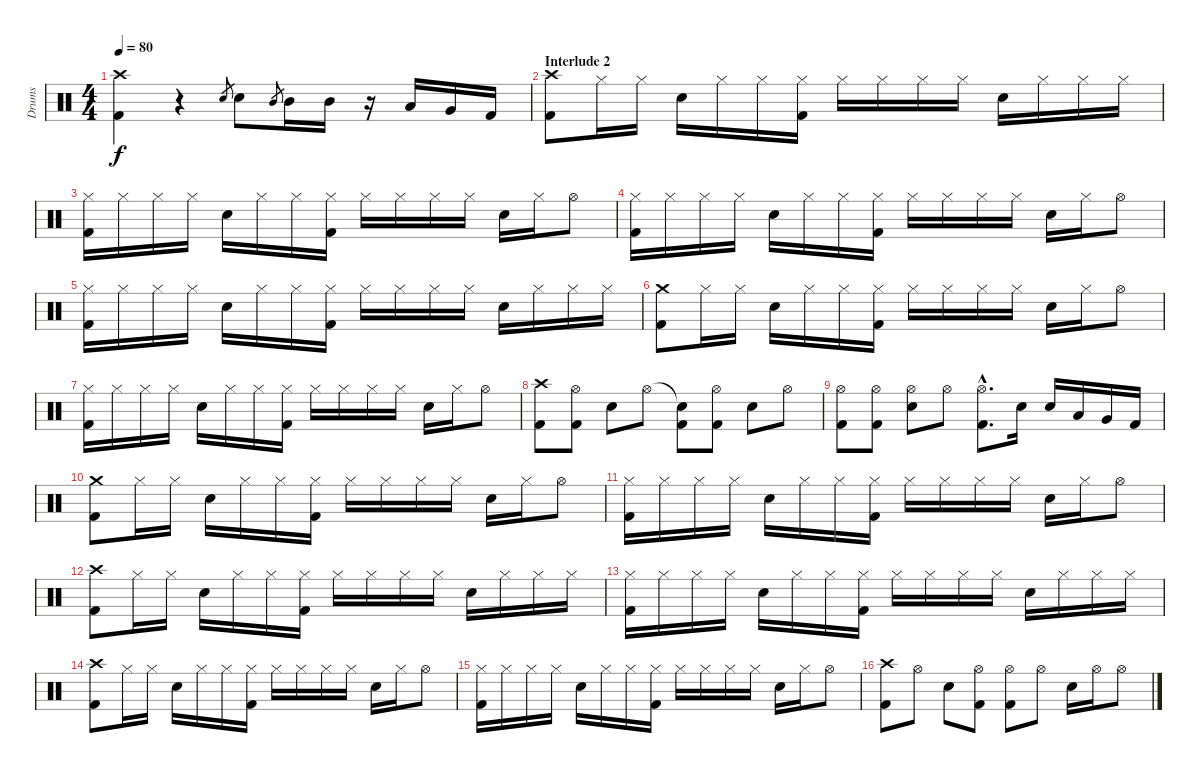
\track ("Drums" "Drums") {instrument percussion}
\staff {score}
\articulation defaults
\ts (4 4)
\tempo 80
\clef neutral
\ks c
("Crash high (hit)" "Kick (hit) 2").4{dy f} r.4 "Electric Snare (hit)"{sl}.8{gr} "Electric Snare (hit)".8 "Mid Tom (hit)".8{gr} "Mid Tom (hit)".16 "Mid Tom (hit)".16 r.16 "Low Tom (hit)".16 "Very Low Tom (hit)".16 "Kick (hit) 2".16 |
\section ("" "Interlude 2")
("Crash high (hit)" "Kick (hit) 2").8 "Hi-Hat (closed)".16 "Hi-Hat (closed)".16 "Electric Snare (hit)".16 "Hi-Hat (closed)".16 "Hi-Hat (closed)".16 ("Hi-Hat (closed)" "Kick (hit) 2").16 "Hi-Hat (closed)".16 "Hi-Hat (closed)".16 "Hi-Hat (closed)".16 "Hi-Hat (closed)".16 "Electric Snare (hit)".16 "Hi-Hat (closed)".16 "Hi-Hat (closed)".16 "Hi-Hat (closed)".16 |
("Hi-Hat (closed)" "Kick (hit) 2").16 "Hi-Hat (closed)".16 "Hi-Hat (closed)".16 "Hi-Hat (closed)".16 "Electric Snare (hit)".16 "Hi-Hat (closed)".16 "Hi-Hat (closed)".16 ("Hi-Hat (closed)" "Kick (hit) 2").16 "Hi-Hat (closed)".16 "Hi-Hat (closed)".16 "Hi-Hat (closed)".16 "Hi-Hat (closed)".16 "Electric Snare (hit)".16 "Hi-Hat (closed)".16 "Hi-Hat (open)".8 |
("Hi-Hat (closed)" "Kick (hit) 2").16 "Hi-Hat (closed)".16 "Hi-Hat (closed)".16 "Hi-Hat (closed)".16 "Electric Snare (hit)".16 "Hi-Hat (closed)".16 "Hi-Hat (closed)".16 ("Hi-Hat (closed)" "Kick (hit) 2").16 "Hi-Hat (closed)".16 "Hi-Hat (closed)".16 "Hi-Hat (closed)".16 "Hi-Hat (closed)".16 "Electric Snare (hit)".16 "Hi-Hat (closed)".16 "Hi-Hat (open)".8 |
("Hi-Hat (closed)" "Kick (hit) 2").16 "Hi-Hat (closed)".16 "Hi-Hat (closed)".16 "Hi-Hat (closed)".16 "Electric Snare (hit)".16 "Hi-Hat (closed)".16 "Hi-Hat (closed)".16 ("Hi-Hat (closed)" "Kick (hit) 2").16 "Hi-Hat (closed)".16 "Hi-Hat (closed)".16 "Hi-Hat (closed)".16 "Hi-Hat (closed)".16 "Electric Snare (hit)".16 "Hi-Hat (closed)".16 "Hi-Hat (closed)".16 "Hi-Hat (closed)".16 |
("Crash medium (hit)" "Kick (hit) 2").8 "Hi-Hat (closed)".16 "Hi-Hat (closed)".16 "Electric Snare (hit)".16 "Hi-Hat (closed)".16 "Hi-Hat (closed)".16 ("Hi-Hat (closed)" "Kick (hit) 2").16 "Hi-Hat (closed)".16 "Hi-Hat (closed)".16 "Hi-Hat (closed)".16 "Hi-Hat (closed)".16 "Electric Snare (hit)".16 "Hi-Hat (closed)".16 "Hi-Hat (open)".8 |
("Hi-Hat (closed)" "Kick (hit) 2").16 "Hi-Hat (closed)".16 "Hi-Hat (closed)".16 "Hi-Hat (closed)".16 "Electric Snare (hit)".16 "Hi-Hat (closed)".16 "Hi-Hat (closed)".16 ("Hi-Hat (closed)" "Kick (hit) 2").16 "Hi-Hat (closed)".16 "Hi-Hat (closed)".16 "Hi-Hat (closed)".16 "Hi-Hat (closed)".16 "Electric Snare (hit)".16 "Hi-Hat (closed)".16 "Hi-Hat (open)".8 |
("Crash high (hit)" "Kick (hit) 2").8 ("Hi-Hat (open)" "Kick (hit) 2").8 "Electric Snare (hit)".8 "Hi-Hat (open)".8 ("Snare (hit)"{t} "Kick (hit) 2").8 ("Hi-Hat (open)" "Kick (hit) 2").8 "Electric Snare (hit)".8 "Hi-Hat (open)".8 |
("Hi-Hat (open)" "Kick (hit) 2").8 ("Hi-Hat (open)" "Kick (hit) 2").8 ("Hi-Hat (open)" "Electric Snare (hit)").8 "Hi-Hat (open)".8 ("Hi-Hat (open)"{hac} "Kick (hit) 2"{hac}).8{d} "Electric Snare (hit)".16 "Electric Snare (hit)".16 "Low Tom (hit)".16 "Very Low Tom (hit)".16 "Kick (hit) 2".16 |
("Crash medium (hit)" "Kick (hit) 2").8 "Hi-Hat (closed)".16 "Hi-Hat (closed)".16 "Electric Snare (hit)".16 "Hi-Hat (closed)".16 "Hi-Hat (closed)".16 ("Hi-Hat (closed)" "Kick (hit) 2").16 "Hi-Hat (closed)".16 "Hi-Hat (closed)".16 "Hi-Hat (closed)".16 "Hi-Hat (closed)".16 "Electric Snare (hit)".16 "Hi-Hat (closed)".16 "Hi-Hat (open)".8 |
("Hi-Hat (closed)" "Kick (hit) 2").16 "Hi-Hat (closed)".16 "Hi-Hat (closed)".16 "Hi-Hat (closed)".16 "Electric Snare (hit)".16 "Hi-Hat (closed)".16 "Hi-Hat (closed)".16 ("Hi-Hat (closed)" "Kick (hit) 2").16 "Hi-Hat (closed)".16 "Hi-Hat (closed)".16 "Hi-Hat (closed)".16 "Hi-Hat (closed)".16 "Electric Snare (hit)".16 "Hi-Hat (closed)".16 "Hi-Hat (open)".8 |
("Crash high (hit)" "Kick (hit) 2").8 "Hi-Hat (closed)".16 "Hi-Hat (closed)".16 "Electric Snare (hit)".16 "Hi-Hat (closed)".16 "Hi-Hat (closed)".16 ("Hi-Hat (closed)" "Kick (hit) 2").16 "Hi-Hat (closed)".16 "Hi-Hat (closed)".16 "Hi-Hat (closed)".16 "Hi-Hat (closed)".16 "Electric Snare (hit)".16 "Hi-Hat (closed)".16 "Hi-Hat (closed)".16 "Hi-Hat (closed)".16 |
("Hi-Hat (closed)" "Kick (hit) 2").16 "Hi-Hat (closed)".16 "Hi-Hat (closed)".16 "Hi-Hat (closed)".16 "Electric Snare (hit)".16 "Hi-Hat (closed)".16 "Hi-Hat (closed)".16 ("Hi-Hat (closed)" "Kick (hit) 2").16 "Hi-Hat (closed)".16 "Hi-Hat (closed)".16 "Hi-Hat (closed)".16 "Hi-Hat (closed)".16 "Electric Snare (hit)".16 "Hi-Hat (closed)".16 "Hi-Hat (closed)".16 "Hi-Hat (closed)".16 |
("Crash high (hit)" "Kick (hit) 2").8 "Hi-Hat (closed)".16 "Hi-Hat (closed)".16 "Electric Snare (hit)".16 "Hi-Hat (closed)".16 "Hi-Hat (closed)".16 ("Hi-Hat (closed)" "Kick (hit) 2").16 "Hi-Hat (closed)".16 "Hi-Hat (closed)".16 "Hi-Hat (closed)".16 "Hi-Hat (closed)".16 "Electric Snare (hit)".16 "Hi-Hat (closed)".16 "Hi-Hat (open)".8 |
("Hi-Hat (closed)" "Kick (hit) 2").16 "Hi-Hat (closed)".16 "Hi-Hat (closed)".16 "Hi-Hat (closed)".16 "Electric Snare (hit)".16 "Hi-Hat (closed)".16 "Hi-Hat (closed)".16 ("Hi-Hat (closed)" "Kick (hit) 2").16 "Hi-Hat (closed)".16 "Hi-Hat (closed)".16 "Hi-Hat (closed)".16 "Hi-Hat (closed)".16 "Electric Snare (hit)".16 "Hi-Hat (closed)".16 "Hi-Hat (open)".8 |
("Crash high (hit)" "Kick (hit) 2").8 "Hi-Hat (open)".8 "Electric Snare (hit)".8 ("Hi-Hat (open)" "Kick (hit) 2").8 ("Hi-Hat (open)" "Kick (hit) 2").8 "Hi-Hat (open)".8 "Electric Snare (hit)".16 "Hi-Hat (open)".16 "Hi-Hat (open)".8
